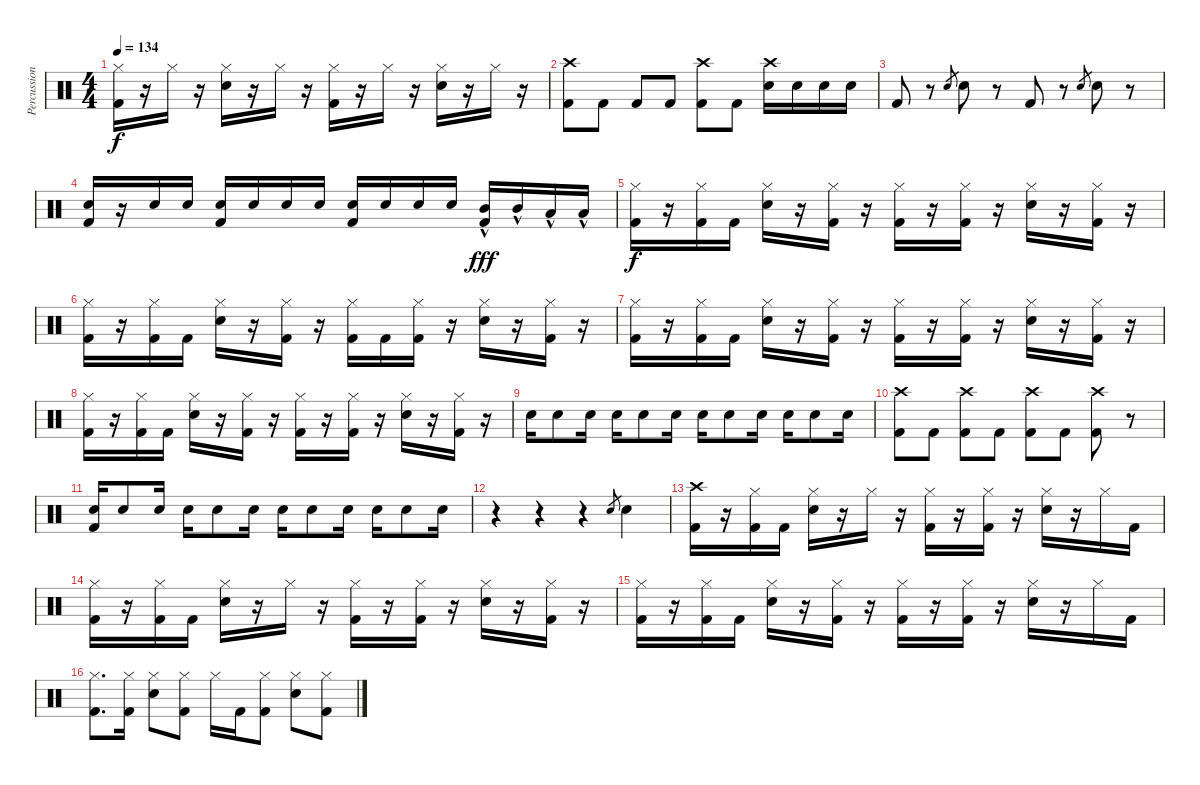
\track ("Percussion" "Percussion") {instrument percussion}
\staff {score}
\articulation defaults
\ts (4 4)
\tempo 134
\clef neutral
\ks c
("Hi-Hat (closed)" "Kick (hit) 2").16{dy f} r.16 "Hi-Hat (closed)".16 r.16 ("Hi-Hat (closed)" "Snare (hit) 2").16 r.16 "Hi-Hat (closed)".16 r.16 ("Hi-Hat (closed)" "Kick (hit) 2").16 r.16 "Hi-Hat (closed)".16 r.16 ("Hi-Hat (closed)" "Snare (hit) 2").16 r.16 "Hi-Hat (closed)".16 r.16 |
("Crash high (hit)" "Kick (hit) 2").8 "Kick (hit) 2".8 "Kick (hit) 2".8 "Kick (hit) 2".8 ("Crash high (hit)" "Kick (hit) 2").8 "Kick (hit) 2".8 ("Crash high (hit)" "Snare (hit) 2").16 "Snare (hit) 2".16 "Snare (hit) 2".16 "Snare (hit) 2".16 |
"Kick (hit) 2".8 r.8 "Snare (hit) 2".8{gr} "Snare (hit) 2".8 r.8 "Kick (hit) 2".8 r.8 "Snare (hit) 2".8{gr} "Snare (hit) 2".8 r.8 |
("Snare (hit) 2" "Kick (hit) 2").16 r.16 "Snare (hit) 2".16 "Snare (hit) 2".16 ("Snare (hit) 2" "Kick (hit) 2").16 "Snare (hit) 2".16 "Snare (hit) 2".16 "Snare (hit) 2".16 ("Snare (hit) 2" "Kick (hit) 2").16 "Snare (hit) 2".16 "Snare (hit) 2".16 "Snare (hit) 2".16 ("Mid Tom (hit)"{hac} "Kick (hit) 2").16{dy fff balance 0} "Mid Tom (hit)"{hac}.16{balance 5} "Low Tom (hit)"{hac}.16{balance 12} "Low Tom (hit)"{hac}.16{balance 16} |
("Hi-Hat (closed)" "Kick (hit) 2").16{dy f balance 8} r.16 ("Hi-Hat (closed)" "Kick (hit) 2").16 "Kick (hit) 2".16 ("Hi-Hat (closed)" "Snare (hit) 2").16 r.16 ("Hi-Hat (closed)" "Kick (hit) 2").16 r.16 ("Hi-Hat (closed)" "Kick (hit) 2").16 r.16 ("Hi-Hat (closed)" "Kick (hit) 2").16 r.16 ("Hi-Hat (closed)" "Snare (hit) 2").16 r.16 ("Hi-Hat (closed)" "Kick (hit) 2").16 r.16 |
("Hi-Hat (closed)" "Kick (hit) 2").16 r.16 ("Hi-Hat (closed)" "Kick (hit) 2").16 "Kick (hit) 2".16 ("Hi-Hat (closed)" "Snare (hit) 2").16 r.16 ("Hi-Hat (closed)" "Kick (hit) 2").16 r.16 ("Hi-Hat (closed)" "Kick (hit) 2").16 "Kick (hit) 2".16 ("Hi-Hat (closed)" "Kick (hit) 2").16 r.16 ("Hi-Hat (closed)" "Snare (hit) 2").16 r.16 ("Hi-Hat (closed)" "Kick (hit) 2").16 r.16 |
("Hi-Hat (closed)" "Kick (hit) 2").16 r.16 ("Hi-Hat (closed)" "Kick (hit) 2").16 "Kick (hit) 2".16 ("Hi-Hat (closed)" "Snare (hit) 2").16 r.16 ("Hi-Hat (closed)" "Kick (hit) 2").16 r.16 ("Hi-Hat (closed)" "Kick (hit) 2").16 r.16 ("Hi-Hat (closed)" "Kick (hit) 2").16 r.16 ("Hi-Hat (closed)" "Snare (hit) 2").16 r.16 ("Hi-Hat (closed)" "Kick (hit) 2").16 r.16 |
("Hi-Hat (closed)" "Kick (hit) 2").16 r.16 ("Hi-Hat (closed)" "Kick (hit) 2").16 "Kick (hit) 2".16 ("Hi-Hat (closed)" "Snare (hit) 2").16 r.16 ("Hi-Hat (closed)" "Kick (hit) 2").16 r.16 ("Hi-Hat (closed)" "Kick (hit) 2").16 r.16 ("Hi-Hat (closed)" "Kick (hit) 2").16 r.16 ("Hi-Hat (closed)" "Snare (hit) 2").16 r.16 ("Hi-Hat (closed)" "Kick (hit) 2").16 r.16 |
"Snare (hit) 2".16 "Snare (hit) 2".8 "Snare (hit) 2".16 "Snare (hit) 2".16 "Snare (hit) 2".8 "Snare (hit) 2".16 "Snare (hit) 2".16 "Snare (hit) 2".8 "Snare (hit) 2".16 "Snare (hit) 2".16 "Snare (hit) 2".8 "Snare (hit) 2".16 |
("Crash high (hit)" "Kick (hit) 2").8 "Kick (hit) 2".8 ("Crash high (hit)" "Kick (hit) 2").8 "Kick (hit) 2".8 ("Crash high (hit)" "Kick (hit) 2").8 "Kick (hit) 2".8 ("Crash high (hit)" "Kick (hit) 2").8 r.8 |
("Snare (hit) 2" "Kick (hit) 2").16 "Snare (hit) 2".8 "Snare (hit) 2".16 "Snare (hit) 2".16 "Snare (hit) 2".8 "Snare (hit) 2".16 "Snare (hit) 2".16 "Snare (hit) 2".8 "Snare (hit) 2".16 "Snare (hit) 2".16 "Snare (hit) 2".8 "Snare (hit) 2".16 |
r.4 r.4 r.4 "Snare (hit) 2".8{gr} "Snare (hit) 2".4 |
("Crash high (hit)" "Kick (hit) 2").16 r.16 ("Hi-Hat (closed)" "Kick (hit) 2").16 "Kick (hit) 2".16 ("Hi-Hat (closed)" "Snare (hit) 2").16 r.16 "Hi-Hat (closed)".16 r.16 ("Hi-Hat (closed)" "Kick (hit) 2").16 r.16 ("Hi-Hat (closed)" "Kick (hit) 2").16 r.16 ("Hi-Hat (closed)" "Snare (hit) 2").16 r.16 "Hi-Hat (closed)".16 "Kick (hit) 2".16 |
("Hi-Hat (closed)" "Kick (hit) 2").16 r.16 ("Hi-Hat (closed)" "Kick (hit) 2").16 "Kick (hit) 2".16 ("Hi-Hat (closed)" "Snare (hit) 2").16 r.16 "Hi-Hat (closed)".16 r.16 ("Hi-Hat (closed)" "Kick (hit) 2").16 r.16 ("Hi-Hat (closed)" "Kick (hit) 2").16 r.16 ("Hi-Hat (closed)" "Snare (hit) 2").16 r.16 ("Hi-Hat (closed)" "Kick (hit) 2").16 r.16 |
("Hi-Hat (closed)" "Kick (hit) 2").16 r.16 ("Hi-Hat (closed)" "Kick (hit) 2").16 "Kick (hit) 2".16 ("Hi-Hat (closed)" "Snare (hit) 2").16 r.16 ("Hi-Hat (closed)" "Kick (hit) 2").16 r.16 ("Hi-Hat (closed)" "Kick (hit) 2").16 r.16 ("Hi-Hat (closed)" "Kick (hit) 2").16 r.16 ("Hi-Hat (closed)" "Snare (hit) 2").16 r.16 "Hi-Hat (closed)".16 "Kick (hit) 2".16 |
("Hi-Hat (closed)" "Kick (hit) 2").8{d} ("Hi-Hat (closed)" "Kick (hit) 2").16 ("Hi-Hat (closed)" "Snare (hit) 2").8 ("Hi-Hat (closed)" "Kick (hit) 2").8 "Hi-Hat (closed)".16 "Kick (hit) 2".16 ("Hi-Hat (closed)" "Kick (hit) 2").8 ("Hi-Hat (closed)" "Snare (hit) 2").8 ("Hi-Hat (closed)" "Kick (hit) 2").8
